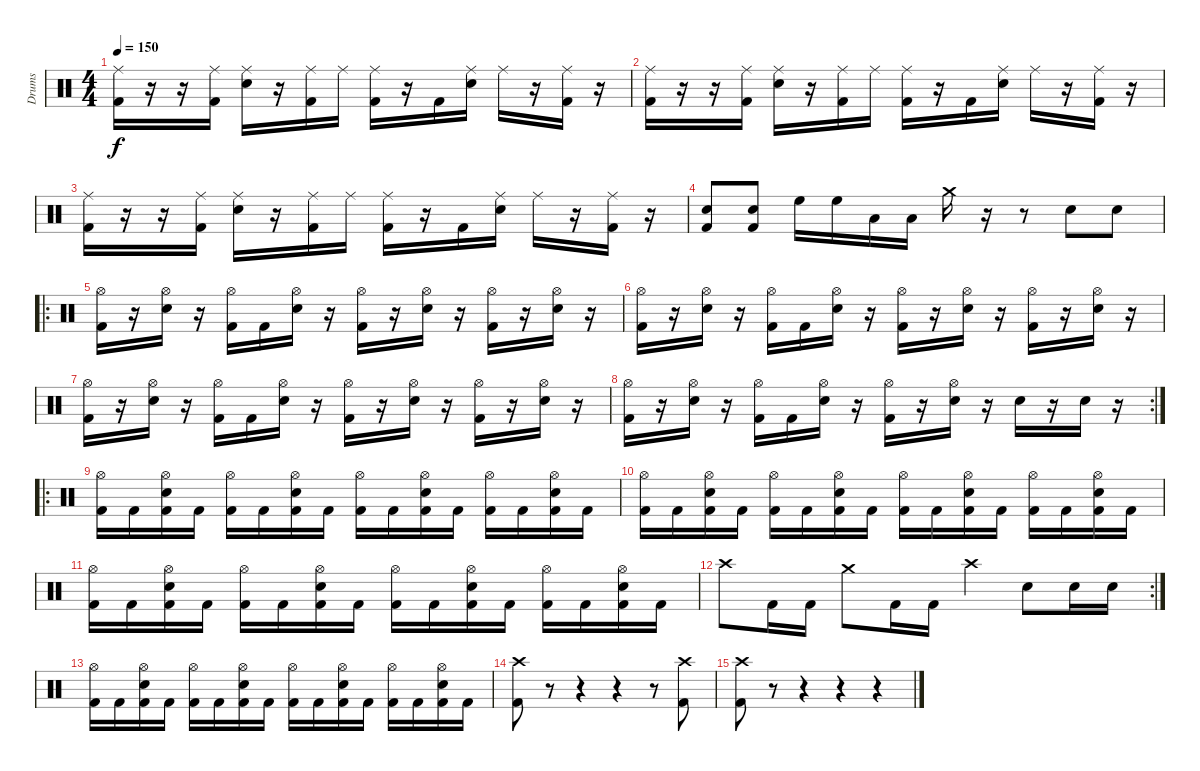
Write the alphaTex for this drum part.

\track ("Drums" "Drums") {instrument percussion}
\staff {score}
\articulation defaults
\ts (4 4)
\tempo 150
\clef neutral
\ks c
("Ride (middle)" "Kick (hit) 2").16{dy f} r.16 r.16 ("Ride (middle)" "Kick (hit) 2").16 ("Ride (middle)" "Electric Snare (hit)").16 r.16 ("Ride (middle)" "Kick (hit) 2").16 "Ride (middle)".16 ("Ride (middle)" "Kick (hit) 2").16 r.16 "Kick (hit) 2".16 ("Ride (middle)" "Electric Snare (hit)").16 "Ride (middle)".16 r.16 ("Ride (middle)" "Kick (hit) 2").16 r.16 |
("Ride (middle)" "Kick (hit) 2").16 r.16 r.16 ("Ride (middle)" "Kick (hit) 2").16 ("Ride (middle)" "Electric Snare (hit)").16 r.16 ("Ride (middle)" "Kick (hit) 2").16 "Ride (middle)".16 ("Ride (middle)" "Kick (hit) 2").16 r.16 "Kick (hit) 2".16 ("Ride (middle)" "Electric Snare (hit)").16 "Ride (middle)".16 r.16 ("Ride (middle)" "Kick (hit) 2").16 r.16 |
("Ride (middle)" "Kick (hit) 2").16 r.16 r.16 ("Ride (middle)" "Kick (hit) 2").16 ("Ride (middle)" "Electric Snare (hit)").16 r.16 ("Ride (middle)" "Kick (hit) 2").16 "Ride (middle)".16 ("Ride (middle)" "Kick (hit) 2").16 r.16 "Kick (hit) 2".16 ("Ride (middle)" "Electric Snare (hit)").16 "Ride (middle)".16 r.16 ("Ride (middle)" "Kick (hit) 2").16 r.16 |
("Electric Snare (hit)" "Kick (hit) 2").8 ("Electric Snare (hit)" "Kick (hit) 2").8 "High Floor Tom (hit)".16 "High Floor Tom (hit)".16 "Low Floor Tom (hit)".16 "Low Floor Tom (hit)".16 "Crash medium (hit)".16 r.16 r.8 "Electric Snare (hit)".8 "Electric Snare (hit)".8 |
\ro
("Hi-Hat (open)" "Kick (hit) 2").16 r.16 ("Hi-Hat (open)" "Electric Snare (hit)").16 r.16 ("Hi-Hat (open)" "Kick (hit) 2").16 "Kick (hit) 2".16 ("Hi-Hat (open)" "Electric Snare (hit)").16 r.16 ("Hi-Hat (open)" "Kick (hit) 2").16 r.16 ("Hi-Hat (open)" "Electric Snare (hit)").16 r.16 ("Hi-Hat (open)" "Kick (hit) 2").16 r.16 ("Hi-Hat (open)" "Electric Snare (hit)").16 r.16 |
("Hi-Hat (open)" "Kick (hit) 2").16 r.16 ("Hi-Hat (open)" "Electric Snare (hit)").16 r.16 ("Hi-Hat (open)" "Kick (hit) 2").16 "Kick (hit) 2".16 ("Hi-Hat (open)" "Electric Snare (hit)").16 r.16 ("Hi-Hat (open)" "Kick (hit) 2").16 r.16 ("Hi-Hat (open)" "Electric Snare (hit)").16 r.16 ("Hi-Hat (open)" "Kick (hit) 2").16 r.16 ("Hi-Hat (open)" "Electric Snare (hit)").16 r.16 |
("Hi-Hat (open)" "Kick (hit) 2").16 r.16 ("Hi-Hat (open)" "Electric Snare (hit)").16 r.16 ("Hi-Hat (open)" "Kick (hit) 2").16 "Kick (hit) 2".16 ("Hi-Hat (open)" "Electric Snare (hit)").16 r.16 ("Hi-Hat (open)" "Kick (hit) 2").16 r.16 ("Hi-Hat (open)" "Electric Snare (hit)").16 r.16 ("Hi-Hat (open)" "Kick (hit) 2").16 r.16 ("Hi-Hat (open)" "Electric Snare (hit)").16 r.16 |
\rc 2
("Hi-Hat (open)" "Kick (hit) 2").16 r.16 ("Hi-Hat (open)" "Electric Snare (hit)").16 r.16 ("Hi-Hat (open)" "Kick (hit) 2").16 "Kick (hit) 2".16 ("Hi-Hat (open)" "Electric Snare (hit)").16 r.16 ("Hi-Hat (open)" "Kick (hit) 2").16 r.16 ("Hi-Hat (open)" "Electric Snare (hit)").16 r.16 "Electric Snare (hit)".16 r.16 "Electric Snare (hit)".16 r.16 |
\ro
("Hi-Hat (open)" "Kick (hit) 2").16 "Kick (hit) 2".16 ("Hi-Hat (open)" "Electric Snare (hit)" "Kick (hit) 2").16 "Kick (hit) 2".16 ("Hi-Hat (open)" "Kick (hit) 2").16 "Kick (hit) 2".16 ("Hi-Hat (open)" "Electric Snare (hit)" "Kick (hit) 2").16 "Kick (hit) 2".16 ("Hi-Hat (open)" "Kick (hit) 2").16 "Kick (hit) 2".16 ("Hi-Hat (open)" "Electric Snare (hit)" "Kick (hit) 2").16 "Kick (hit) 2".16 ("Hi-Hat (open)" "Kick (hit) 2").16 "Kick (hit) 2".16 ("Hi-Hat (open)" "Electric Snare (hit)" "Kick (hit) 2").16 "Kick (hit) 2".16 |
("Hi-Hat (open)" "Kick (hit) 2").16 "Kick (hit) 2".16 ("Hi-Hat (open)" "Electric Snare (hit)" "Kick (hit) 2").16 "Kick (hit) 2".16 ("Hi-Hat (open)" "Kick (hit) 2").16 "Kick (hit) 2".16 ("Hi-Hat (open)" "Electric Snare (hit)" "Kick (hit) 2").16 "Kick (hit) 2".16 ("Hi-Hat (open)" "Kick (hit) 2").16 "Kick (hit) 2".16 ("Hi-Hat (open)" "Electric Snare (hit)" "Kick (hit) 2").16 "Kick (hit) 2".16 ("Hi-Hat (open)" "Kick (hit) 2").16 "Kick (hit) 2".16 ("Hi-Hat (open)" "Electric Snare (hit)" "Kick (hit) 2").16 "Kick (hit) 2".16 |
("Hi-Hat (open)" "Kick (hit) 2").16 "Kick (hit) 2".16 ("Hi-Hat (open)" "Electric Snare (hit)" "Kick (hit) 2").16 "Kick (hit) 2".16 ("Hi-Hat (open)" "Kick (hit) 2").16 "Kick (hit) 2".16 ("Hi-Hat (open)" "Electric Snare (hit)" "Kick (hit) 2").16 "Kick (hit) 2".16 ("Hi-Hat (open)" "Kick (hit) 2").16 "Kick (hit) 2".16 ("Hi-Hat (open)" "Electric Snare (hit)" "Kick (hit) 2").16 "Kick (hit) 2".16 ("Hi-Hat (open)" "Kick (hit) 2").16 "Kick (hit) 2".16 ("Hi-Hat (open)" "Electric Snare (hit)" "Kick (hit) 2").16 "Kick (hit) 2".16 |
\rc 2 "Crash high (hit)".8 "Kick (hit) 2".16 "Kick (hit) 2".16 "Crash medium (hit)".8 "Kick (hit) 2".16 "Kick (hit) 2".16 "Crash high (hit)".4 "Electric Snare (hit)".8 "Electric Snare (hit)".16 "Electric Snare (hit)".16
|
("Hi-Hat (open)" "Kick (hit) 2").16 "Kick (hit) 2".16 ("Hi-Hat (open)" "Electric Snare (hit)" "Kick (hit) 2").16 "Kick (hit) 2".16 ("Hi-Hat (open)" "Kick (hit) 2").16 "Kick (hit) 2".16 ("Hi-Hat (open)" "Electric Snare (hit)" "Kick (hit) 2").16 "Kick (hit) 2".16 ("Hi-Hat (open)" "Kick (hit) 2").16 "Kick (hit) 2".16 ("Hi-Hat (open)" "Electric Snare (hit)" "Kick (hit) 2").16 "Kick (hit) 2".16 ("Hi-Hat (open)" "Kick (hit) 2").16 "Kick (hit) 2".16 ("Hi-Hat (open)" "Electric Snare (hit)" "Kick (hit) 2").16 "Kick (hit) 2".16 |
("Crash high (hit)" "Kick (hit) 2").8 r.8 r.4 r.4 r.8 ("Crash high (hit)" "Kick (hit) 2").8 |
("Crash high (hit)" "Kick (hit) 2").8 r.8 r.4 r.4 r.4
